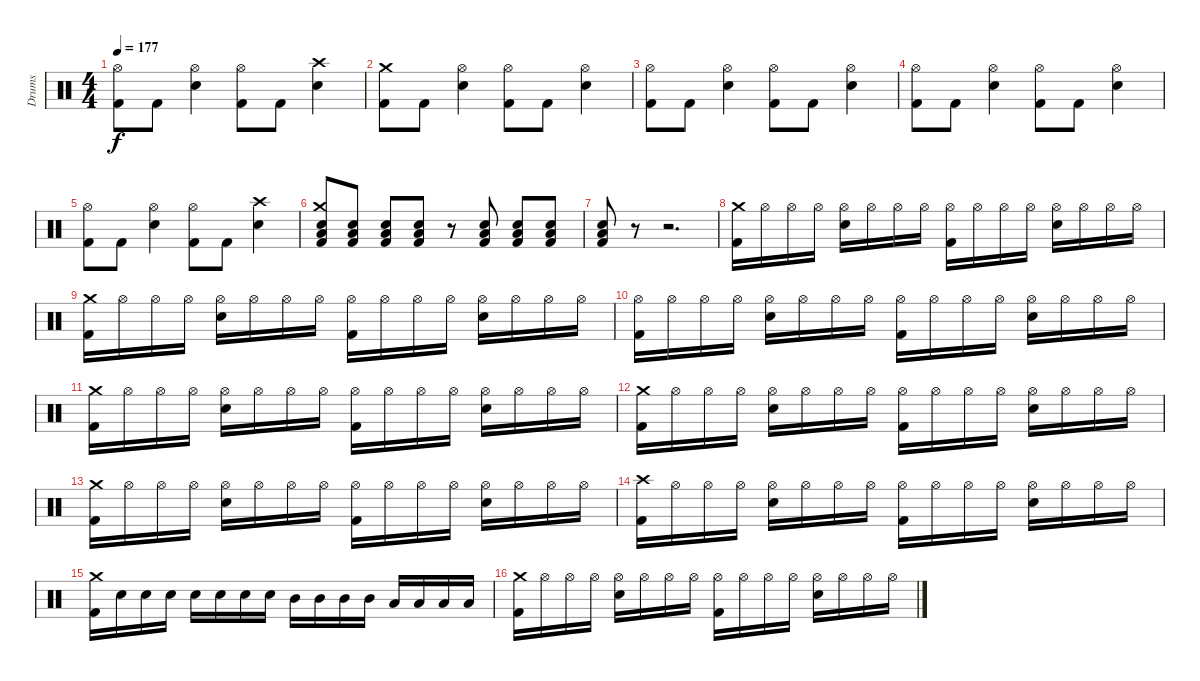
\track ("Drums" "Drums") {solo instrument percussion}
\staff {score}
\articulation defaults
\ts (4 4)
\tempo 177
\clef neutral
\ks c
("Hi-Hat (open)" "Kick (hit) 2").8{dy f} "Kick (hit) 2".8 ("Hi-Hat (open)" "Snare (hit) 2").4 ("Hi-Hat (open)" "Kick (hit) 2").8 "Kick (hit) 2".8 ("Crash high (hit)" "Snare (hit) 2").4 |
("Crash medium (hit)" "Kick (hit) 2").8 "Kick (hit) 2".8 ("Hi-Hat (open)" "Snare (hit) 2").4 ("Hi-Hat (open)" "Kick (hit) 2").8 "Kick (hit) 2".8 ("Hi-Hat (open)" "Snare (hit) 2").4 |
("Hi-Hat (open)" "Kick (hit) 2").8 "Kick (hit) 2".8 ("Hi-Hat (open)" "Snare (hit) 2").4 ("Hi-Hat (open)" "Kick (hit) 2").8 "Kick (hit) 2".8 ("Hi-Hat (open)" "Snare (hit) 2").4 |
("Hi-Hat (open)" "Kick (hit) 2").8 "Kick (hit) 2".8 ("Hi-Hat (open)" "Snare (hit) 2").4 ("Hi-Hat (open)" "Kick (hit) 2").8 "Kick (hit) 2".8 ("Hi-Hat (open)" "Snare (hit) 2").4 |
("Hi-Hat (open)" "Kick (hit) 2").8 "Kick (hit) 2".8 ("Hi-Hat (open)" "Snare (hit) 2").4 ("Hi-Hat (open)" "Kick (hit) 2").8 "Kick (hit) 2".8 ("Crash high (hit)" "Snare (hit) 2").4 |
("Crash medium (hit)" "Low Floor Tom (hit)" "Snare (hit) 2" "Kick (hit) 2").8 ("Low Floor Tom (hit)" "Snare (hit) 2" "Kick (hit) 2").8 ("Low Floor Tom (hit)" "Snare (hit) 2" "Kick (hit) 2").8 ("Low Floor Tom (hit)" "Snare (hit) 2" "Kick (hit) 2").8 r.8 ("Low Floor Tom (hit)" "Snare (hit) 2" "Kick (hit) 2").8 ("Low Floor Tom (hit)" "Snare (hit) 2" "Kick (hit) 2").8 ("Low Floor Tom (hit)" "Snare (hit) 2" "Kick (hit) 2").8 |
("Low Floor Tom (hit)" "Snare (hit) 2" "Kick (hit) 2").8 r.8 r.2{d} |
("Crash medium (hit)" "Kick (hit) 2").16 "Hi-Hat (open)".16 "Hi-Hat (open)".16 "Hi-Hat (open)".16 ("Hi-Hat (open)" "Snare (hit) 2").16 "Hi-Hat (open)".16 "Hi-Hat (open)".16 "Hi-Hat (open)".16 ("Hi-Hat (open)" "Kick (hit) 2").16 "Hi-Hat (open)".16 "Hi-Hat (open)".16 "Hi-Hat (open)".16 ("Hi-Hat (open)" "Snare (hit) 2").16 "Hi-Hat (open)".16 "Hi-Hat (open)".16 "Hi-Hat (open)".16 |
("Crash medium (hit)" "Kick (hit) 2").16 "Hi-Hat (open)".16 "Hi-Hat (open)".16 "Hi-Hat (open)".16 ("Hi-Hat (open)" "Snare (hit) 2").16 "Hi-Hat (open)".16 "Hi-Hat (open)".16 "Hi-Hat (open)".16 ("Hi-Hat (open)" "Kick (hit) 2").16 "Hi-Hat (open)".16 "Hi-Hat (open)".16 "Hi-Hat (open)".16 ("Hi-Hat (open)" "Snare (hit) 2").16 "Hi-Hat (open)".16 "Hi-Hat (open)".16 "Hi-Hat (open)".16 |
("Hi-Hat (open)" "Kick (hit) 2").16 "Hi-Hat (open)".16 "Hi-Hat (open)".16 "Hi-Hat (open)".16 ("Hi-Hat (open)" "Snare (hit) 2").16 "Hi-Hat (open)".16 "Hi-Hat (open)".16 "Hi-Hat (open)".16 ("Hi-Hat (open)" "Kick (hit) 2").16 "Hi-Hat (open)".16 "Hi-Hat (open)".16 "Hi-Hat (open)".16 ("Hi-Hat (open)" "Snare (hit) 2").16 "Hi-Hat (open)".16 "Hi-Hat (open)".16 "Hi-Hat (open)".16 |
("Crash medium (hit)" "Kick (hit) 2").16 "Hi-Hat (open)".16 "Hi-Hat (open)".16 "Hi-Hat (open)".16 ("Hi-Hat (open)" "Snare (hit) 2").16 "Hi-Hat (open)".16 "Hi-Hat (open)".16 "Hi-Hat (open)".16 ("Hi-Hat (open)" "Kick (hit) 2").16 "Hi-Hat (open)".16 "Hi-Hat (open)".16 "Hi-Hat (open)".16 ("Hi-Hat (open)" "Snare (hit) 2").16 "Hi-Hat (open)".16 "Hi-Hat (open)".16 "Hi-Hat (open)".16 |
("Crash medium (hit)" "Kick (hit) 2").16 "Hi-Hat (open)".16 "Hi-Hat (open)".16 "Hi-Hat (open)".16 ("Hi-Hat (open)" "Snare (hit) 2").16 "Hi-Hat (open)".16 "Hi-Hat (open)".16 "Hi-Hat (open)".16 ("Hi-Hat (open)" "Kick (hit) 2").16 "Hi-Hat (open)".16 "Hi-Hat (open)".16 "Hi-Hat (open)".16 ("Hi-Hat (open)" "Snare (hit) 2").16 "Hi-Hat (open)".16 "Hi-Hat (open)".16 "Hi-Hat (open)".16 |
("Crash medium (hit)" "Kick (hit) 2").16 "Hi-Hat (open)".16 "Hi-Hat (open)".16 "Hi-Hat (open)".16 ("Hi-Hat (open)" "Snare (hit) 2").16 "Hi-Hat (open)".16 "Hi-Hat (open)".16 "Hi-Hat (open)".16 ("Hi-Hat (open)" "Kick (hit) 2").16 "Hi-Hat (open)".16 "Hi-Hat (open)".16 "Hi-Hat (open)".16 ("Hi-Hat (open)" "Snare (hit) 2").16 "Hi-Hat (open)".16 "Hi-Hat (open)".16 "Hi-Hat (open)".16 |
("Crash high (hit)" "Kick (hit) 2").16 "Hi-Hat (open)".16 "Hi-Hat (open)".16 "Hi-Hat (open)".16 ("Hi-Hat (open)" "Snare (hit) 2").16 "Hi-Hat (open)".16 "Hi-Hat (open)".16 "Hi-Hat (open)".16 ("Hi-Hat (open)" "Kick (hit) 2").16 "Hi-Hat (open)".16 "Hi-Hat (open)".16 "Hi-Hat (open)".16 ("Hi-Hat (open)" "Snare (hit) 2").16 "Hi-Hat (open)".16 "Hi-Hat (open)".16 "Hi-Hat (open)".16 |
("Crash medium (hit)" "Kick (hit) 2").16 "Snare (hit) 2".16 "Snare (hit) 2".16 "Snare (hit) 2".16 "Snare (hit) 2".16 "Snare (hit) 2".16 "Snare (hit) 2".16 "Snare (hit) 2".16 "Mid Tom (hit)".16 "Mid Tom (hit)".16 "Mid Tom (hit)".16 "Mid Tom (hit)".16 "Low Tom (hit)".16 "Low Tom (hit)".16 "Low Tom (hit)".16 "Low Tom (hit)".16 |
("Crash medium (hit)" "Kick (hit) 2").16 "Hi-Hat (open)".16 "Hi-Hat (open)".16 "Hi-Hat (open)".16 ("Hi-Hat (open)" "Snare (hit) 2").16 "Hi-Hat (open)".16 "Hi-Hat (open)".16 "Hi-Hat (open)".16 ("Hi-Hat (open)" "Kick (hit) 2").16 "Hi-Hat (open)".16 "Hi-Hat (open)".16 "Hi-Hat (open)".16 ("Hi-Hat (open)" "Snare (hit) 2").16 "Hi-Hat (open)".16 "Hi-Hat (open)".16 "Hi-Hat (open)".16
